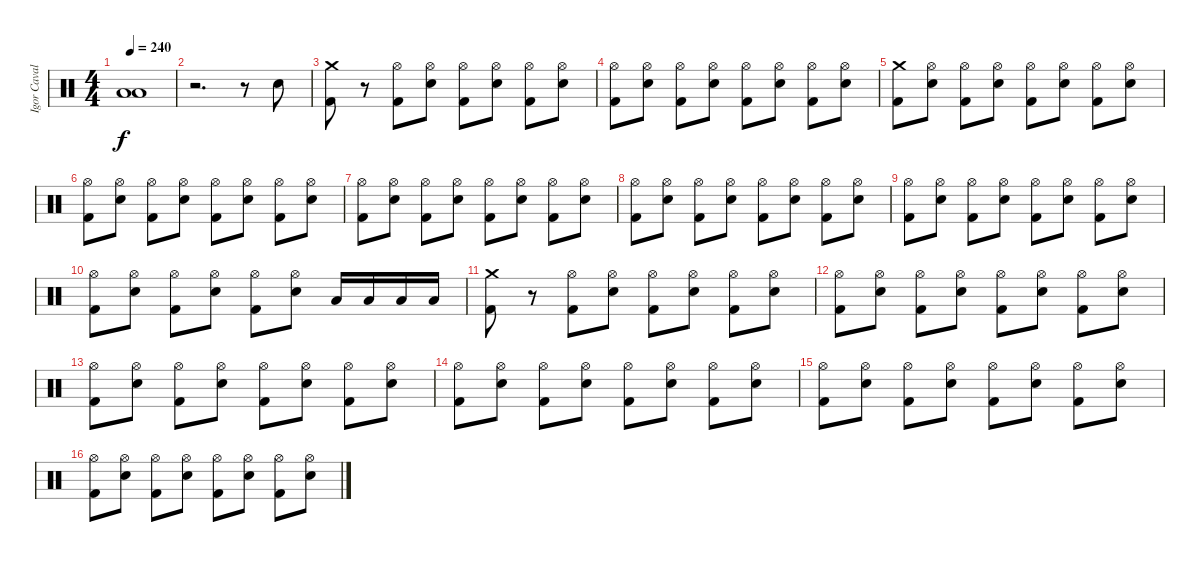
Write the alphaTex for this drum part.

\track ("Igor Cavalera" "Igor Caval") {instrument percussion}
\staff {score}
\articulation defaults
\ts (4 4)
\tempo 240
\clef neutral
\ks c
("Low Floor Tom (hit)" "Low Floor Tom (hit)").1{dy f} |
r.2{d} r.8 "Electric Snare (hit)".8 |
("Crash medium (hit)" "Kick (hit) 2").8 r.8 ("Kick (hit) 2" "Hi-Hat (open)").8 ("Electric Snare (hit)" "Hi-Hat (open)").8 ("Kick (hit) 2" "Hi-Hat (open)").8 ("Electric Snare (hit)" "Hi-Hat (open)").8 ("Kick (hit) 2" "Hi-Hat (open)").8 ("Electric Snare (hit)" "Hi-Hat (open)").8 |
("Hi-Hat (open)" "Kick (hit) 2").8 ("Electric Snare (hit)" "Hi-Hat (open)").8 ("Kick (hit) 2" "Hi-Hat (open)").8 ("Electric Snare (hit)" "Hi-Hat (open)").8 ("Kick (hit) 2" "Hi-Hat (open)").8 ("Electric Snare (hit)" "Hi-Hat (open)").8 ("Kick (hit) 2" "Hi-Hat (open)").8 ("Electric Snare (hit)" "Hi-Hat (open)").8 |
("Kick (hit) 2" "Crash medium (hit)").8 ("Electric Snare (hit)" "Hi-Hat (open)").8 ("Kick (hit) 2" "Hi-Hat (open)").8 ("Electric Snare (hit)" "Hi-Hat (open)").8 ("Kick (hit) 2" "Hi-Hat (open)").8 ("Electric Snare (hit)" "Hi-Hat (open)").8 ("Kick (hit) 2" "Hi-Hat (open)").8 ("Electric Snare (hit)" "Hi-Hat (open)").8 |
("Hi-Hat (open)" "Kick (hit) 2").8 ("Electric Snare (hit)" "Hi-Hat (open)").8 ("Kick (hit) 2" "Hi-Hat (open)").8 ("Electric Snare (hit)" "Hi-Hat (open)").8 ("Kick (hit) 2" "Hi-Hat (open)").8 ("Electric Snare (hit)" "Hi-Hat (open)").8 ("Kick (hit) 2" "Hi-Hat (open)").8 ("Electric Snare (hit)" "Hi-Hat (open)").8 |
("Hi-Hat (open)" "Kick (hit) 2").8 ("Electric Snare (hit)" "Hi-Hat (open)").8 ("Kick (hit) 2" "Hi-Hat (open)").8 ("Electric Snare (hit)" "Hi-Hat (open)").8 ("Kick (hit) 2" "Hi-Hat (open)").8 ("Electric Snare (hit)" "Hi-Hat (open)").8 ("Kick (hit) 2" "Hi-Hat (open)").8 ("Electric Snare (hit)" "Hi-Hat (open)").8 |
("Hi-Hat (open)" "Kick (hit) 2").8 ("Electric Snare (hit)" "Hi-Hat (open)").8 ("Kick (hit) 2" "Hi-Hat (open)").8 ("Electric Snare (hit)" "Hi-Hat (open)").8 ("Kick (hit) 2" "Hi-Hat (open)").8 ("Electric Snare (hit)" "Hi-Hat (open)").8 ("Kick (hit) 2" "Hi-Hat (open)").8 ("Electric Snare (hit)" "Hi-Hat (open)").8 |
("Hi-Hat (open)" "Kick (hit) 2").8 ("Electric Snare (hit)" "Hi-Hat (open)").8 ("Kick (hit) 2" "Hi-Hat (open)").8 ("Electric Snare (hit)" "Hi-Hat (open)").8 ("Kick (hit) 2" "Hi-Hat (open)").8 ("Electric Snare (hit)" "Hi-Hat (open)").8 ("Kick (hit) 2" "Hi-Hat (open)").8 ("Electric Snare (hit)" "Hi-Hat (open)").8 |
("Hi-Hat (open)" "Kick (hit) 2").8 ("Electric Snare (hit)" "Hi-Hat (open)").8 ("Kick (hit) 2" "Hi-Hat (open)").8 ("Electric Snare (hit)" "Hi-Hat (open)").8 ("Kick (hit) 2" "Hi-Hat (open)").8 ("Electric Snare (hit)" "Hi-Hat (open)").8 "Low Tom (hit)".16 "Low Tom (hit)".16 "Low Tom (hit)".16 "Low Tom (hit)".16 |
("Crash medium (hit)" "Kick (hit) 2").8 r.8 ("Kick (hit) 2" "Hi-Hat (open)").8 ("Electric Snare (hit)" "Hi-Hat (open)").8 ("Kick (hit) 2" "Hi-Hat (open)").8 ("Electric Snare (hit)" "Hi-Hat (open)").8 ("Kick (hit) 2" "Hi-Hat (open)").8 ("Electric Snare (hit)" "Hi-Hat (open)").8 |
("Hi-Hat (open)" "Kick (hit) 2").8 ("Electric Snare (hit)" "Hi-Hat (open)").8 ("Kick (hit) 2" "Hi-Hat (open)").8 ("Electric Snare (hit)" "Hi-Hat (open)").8 ("Kick (hit) 2" "Hi-Hat (open)").8 ("Electric Snare (hit)" "Hi-Hat (open)").8 ("Kick (hit) 2" "Hi-Hat (open)").8 ("Electric Snare (hit)" "Hi-Hat (open)").8 |
("Hi-Hat (open)" "Kick (hit) 2").8 ("Electric Snare (hit)" "Hi-Hat (open)").8 ("Kick (hit) 2" "Hi-Hat (open)").8 ("Electric Snare (hit)" "Hi-Hat (open)").8 ("Kick (hit) 2" "Hi-Hat (open)").8 ("Electric Snare (hit)" "Hi-Hat (open)").8 ("Kick (hit) 2" "Hi-Hat (open)").8 ("Electric Snare (hit)" "Hi-Hat (open)").8 |
("Hi-Hat (open)" "Kick (hit) 2").8 ("Electric Snare (hit)" "Hi-Hat (open)").8 ("Kick (hit) 2" "Hi-Hat (open)").8 ("Electric Snare (hit)" "Hi-Hat (open)").8 ("Kick (hit) 2" "Hi-Hat (open)").8 ("Electric Snare (hit)" "Hi-Hat (open)").8 ("Kick (hit) 2" "Hi-Hat (open)").8 ("Electric Snare (hit)" "Hi-Hat (open)").8 |
("Hi-Hat (open)" "Kick (hit) 2").8 ("Electric Snare (hit)" "Hi-Hat (open)").8 ("Kick (hit) 2" "Hi-Hat (open)").8 ("Electric Snare (hit)" "Hi-Hat (open)").8 ("Kick (hit) 2" "Hi-Hat (open)").8 ("Electric Snare (hit)" "Hi-Hat (open)").8 ("Kick (hit) 2" "Hi-Hat (open)").8 ("Electric Snare (hit)" "Hi-Hat (open)").8 |
("Hi-Hat (open)" "Kick (hit) 2").8 ("Electric Snare (hit)" "Hi-Hat (open)").8 ("Kick (hit) 2" "Hi-Hat (open)").8 ("Electric Snare (hit)" "Hi-Hat (open)").8 ("Kick (hit) 2" "Hi-Hat (open)").8 ("Electric Snare (hit)" "Hi-Hat (open)").8 ("Kick (hit) 2" "Hi-Hat (open)").8 ("Electric Snare (hit)" "Hi-Hat (open)").8
